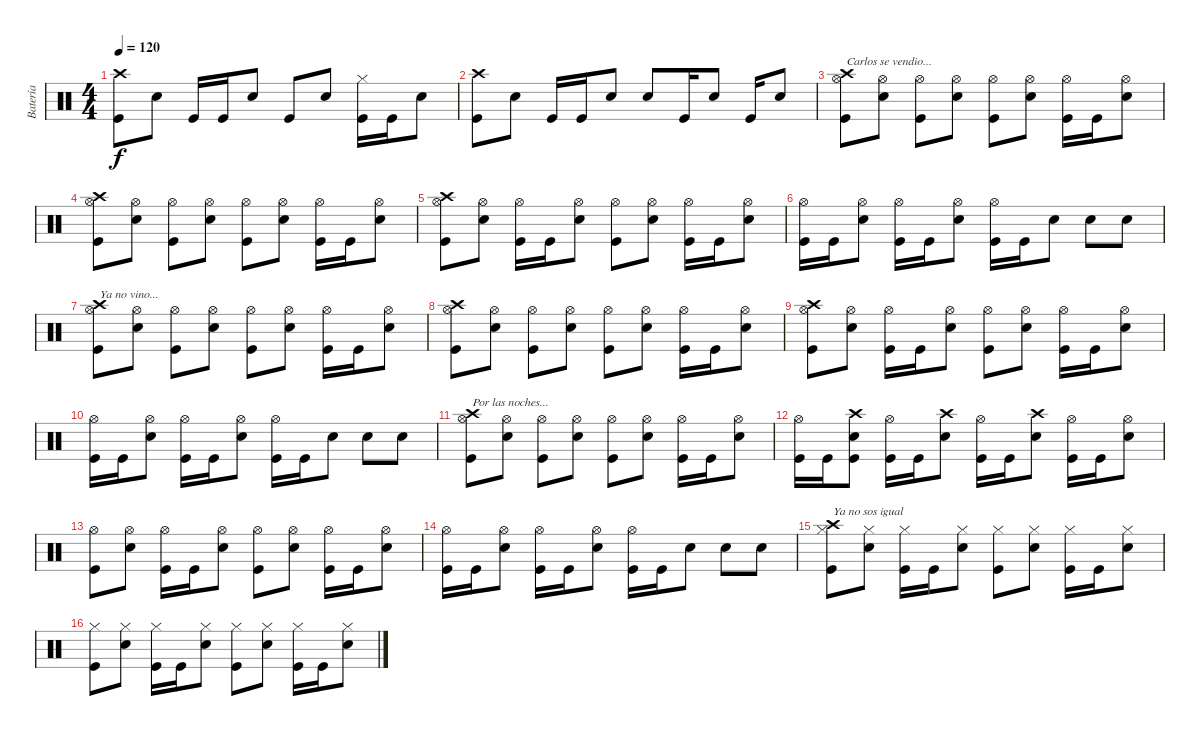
\track ("Batería" "Batería") {instrument percussion}
\staff {score}
\articulation defaults
\ts (4 4)
\tempo 120
\clef neutral
\ks c
("Crash high (hit)" "Kick (hit)").8{dy f} "Electric Snare (hit)".8 "Kick (hit)".16 "Kick (hit)".16 "Electric Snare (hit)".8 "Kick (hit)".8 "Electric Snare (hit)".8 ("Hi-Hat (closed)" "Kick (hit)").16 "Kick (hit)".16 "Electric Snare (hit)".8 |
("Crash high (hit)" "Kick (hit)").8 "Electric Snare (hit)".8 "Kick (hit)".16 "Kick (hit)".16 "Electric Snare (hit)".8 "Electric Snare (hit)".8 "Kick (hit)".16 "Electric Snare (hit)".8 "Kick (hit)".16 "Electric Snare (hit)".8 |
("Crash high (hit)" "Hi-Hat (open)" "Kick (hit)").8{txt "Carlos se vendio..."} ("Hi-Hat (open)" "Electric Snare (hit)").8 ("Hi-Hat (open)" "Kick (hit)").8 ("Hi-Hat (open)" "Electric Snare (hit)").8 ("Hi-Hat (open)" "Kick (hit)").8 ("Hi-Hat (open)" "Electric Snare (hit)").8 ("Hi-Hat (open)" "Kick (hit)").16 "Kick (hit)".16 ("Hi-Hat (open)" "Electric Snare (hit)").8 |
("Crash high (hit)" "Hi-Hat (open)" "Kick (hit)").8 ("Hi-Hat (open)" "Electric Snare (hit)").8 ("Hi-Hat (open)" "Kick (hit)").8 ("Hi-Hat (open)" "Electric Snare (hit)").8 ("Hi-Hat (open)" "Kick (hit)").8 ("Hi-Hat (open)" "Electric Snare (hit)").8 ("Hi-Hat (open)" "Kick (hit)").16 "Kick (hit)".16 ("Hi-Hat (open)" "Electric Snare (hit)").8 |
("Crash high (hit)" "Hi-Hat (open)" "Kick (hit)").8 ("Hi-Hat (open)" "Electric Snare (hit)").8 ("Hi-Hat (open)" "Kick (hit)").16 "Kick (hit)".16 ("Hi-Hat (open)" "Electric Snare (hit)").8 ("Hi-Hat (open)" "Kick (hit)").8 ("Hi-Hat (open)" "Electric Snare (hit)").8 ("Hi-Hat (open)" "Kick (hit)").16 "Kick (hit)".16 ("Hi-Hat (open)" "Electric Snare (hit)").8 |
("Hi-Hat (open)" "Kick (hit)").16 "Kick (hit)".16 ("Hi-Hat (open)" "Electric Snare (hit)").8 ("Hi-Hat (open)" "Kick (hit)").16 "Kick (hit)".16 ("Hi-Hat (open)" "Electric Snare (hit)").8 ("Hi-Hat (open)" "Kick (hit)").16 "Kick (hit)".16 "Electric Snare (hit)".8 "Electric Snare (hit)".8 "Electric Snare (hit)".8 |
("Crash high (hit)" "Hi-Hat (open)" "Kick (hit)").8{txt "Ya no vino..."} ("Hi-Hat (open)" "Electric Snare (hit)").8 ("Hi-Hat (open)" "Kick (hit)").8 ("Hi-Hat (open)" "Electric Snare (hit)").8 ("Hi-Hat (open)" "Kick (hit)").8 ("Hi-Hat (open)" "Electric Snare (hit)").8 ("Hi-Hat (open)" "Kick (hit)").16 "Kick (hit)".16 ("Hi-Hat (open)" "Electric Snare (hit)").8 |
("Crash high (hit)" "Hi-Hat (open)" "Kick (hit)").8 ("Hi-Hat (open)" "Electric Snare (hit)").8 ("Hi-Hat (open)" "Kick (hit)").8 ("Hi-Hat (open)" "Electric Snare (hit)").8 ("Hi-Hat (open)" "Kick (hit)").8 ("Hi-Hat (open)" "Electric Snare (hit)").8 ("Hi-Hat (open)" "Kick (hit)").16 "Kick (hit)".16 ("Hi-Hat (open)" "Electric Snare (hit)").8 |
("Crash high (hit)" "Hi-Hat (open)" "Kick (hit)").8 ("Hi-Hat (open)" "Electric Snare (hit)").8 ("Hi-Hat (open)" "Kick (hit)").16 "Kick (hit)".16 ("Hi-Hat (open)" "Electric Snare (hit)").8 ("Hi-Hat (open)" "Kick (hit)").8 ("Hi-Hat (open)" "Electric Snare (hit)").8 ("Hi-Hat (open)" "Kick (hit)").16 "Kick (hit)".16 ("Hi-Hat (open)" "Electric Snare (hit)").8 |
("Hi-Hat (open)" "Kick (hit)").16 "Kick (hit)".16 ("Hi-Hat (open)" "Electric Snare (hit)").8 ("Hi-Hat (open)" "Kick (hit)").16 "Kick (hit)".16 ("Hi-Hat (open)" "Electric Snare (hit)").8 ("Hi-Hat (open)" "Kick (hit)").16 "Kick (hit)".16 "Electric Snare (hit)".8 "Electric Snare (hit)".8 "Electric Snare (hit)".8 |
("Crash high (hit)" "Hi-Hat (open)" "Kick (hit)").8{txt "Por las noches..."} ("Hi-Hat (open)" "Electric Snare (hit)").8 ("Hi-Hat (open)" "Kick (hit)").8 ("Hi-Hat (open)" "Electric Snare (hit)").8 ("Hi-Hat (open)" "Kick (hit)").8 ("Hi-Hat (open)" "Electric Snare (hit)").8 ("Hi-Hat (open)" "Kick (hit)").16 "Kick (hit)".16 ("Hi-Hat (open)" "Electric Snare (hit)").8 |
("Hi-Hat (open)" "Kick (hit)").16 "Kick (hit)".16 ("Crash high (hit)" "Electric Snare (hit)" "Kick (hit)").8 ("Hi-Hat (open)" "Kick (hit)").16 "Kick (hit)".16 ("Crash high (hit)" "Electric Snare (hit)").8 ("Hi-Hat (open)" "Kick (hit)").16 "Kick (hit)".16 ("Crash high (hit)" "Electric Snare (hit)").8 ("Hi-Hat (open)" "Kick (hit)").16 "Kick (hit)".16 ("Hi-Hat (open)" "Electric Snare (hit)").8 |
("Hi-Hat (open)" "Kick (hit)").8 ("Hi-Hat (open)" "Electric Snare (hit)").8 ("Hi-Hat (open)" "Kick (hit)").16 "Kick (hit)".16 ("Hi-Hat (open)" "Electric Snare (hit)").8 ("Hi-Hat (open)" "Kick (hit)").8 ("Hi-Hat (open)" "Electric Snare (hit)").8 ("Hi-Hat (open)" "Kick (hit)").16 "Kick (hit)".16 ("Hi-Hat (open)" "Electric Snare (hit)").8 |
("Hi-Hat (open)" "Kick (hit)").16 "Kick (hit)".16 ("Hi-Hat (open)" "Electric Snare (hit)").8 ("Hi-Hat (open)" "Kick (hit)").16 "Kick (hit)".16 ("Hi-Hat (open)" "Electric Snare (hit)").8 ("Hi-Hat (open)" "Kick (hit)").16 "Kick (hit)".16 "Electric Snare (hit)".8 "Electric Snare (hit)".8 "Electric Snare (hit)".8 |
("Crash high (hit)" "Hi-Hat (closed)" "Kick (hit)").8{txt "Ya no sos igual"} ("Hi-Hat (closed)" "Electric Snare (hit)").8 ("Hi-Hat (closed)" "Kick (hit)").16 "Kick (hit)".16 ("Hi-Hat (closed)" "Electric Snare (hit)").8 ("Hi-Hat (closed)" "Kick (hit)").8 ("Hi-Hat (closed)" "Electric Snare (hit)").8 ("Hi-Hat (closed)" "Kick (hit)").16 "Kick (hit)".16 ("Hi-Hat (closed)" "Electric Snare (hit)").8 |
("Hi-Hat (closed)" "Kick (hit)").8 ("Hi-Hat (closed)" "Electric Snare (hit)").8 ("Hi-Hat (closed)" "Kick (hit)").16 "Kick (hit)".16 ("Hi-Hat (closed)" "Electric Snare (hit)").8 ("Hi-Hat (closed)" "Kick (hit)").8 ("Hi-Hat (closed)" "Electric Snare (hit)").8 ("Hi-Hat (closed)" "Kick (hit)").16 "Kick (hit)".16 ("Hi-Hat (closed)" "Electric Snare (hit)").8
